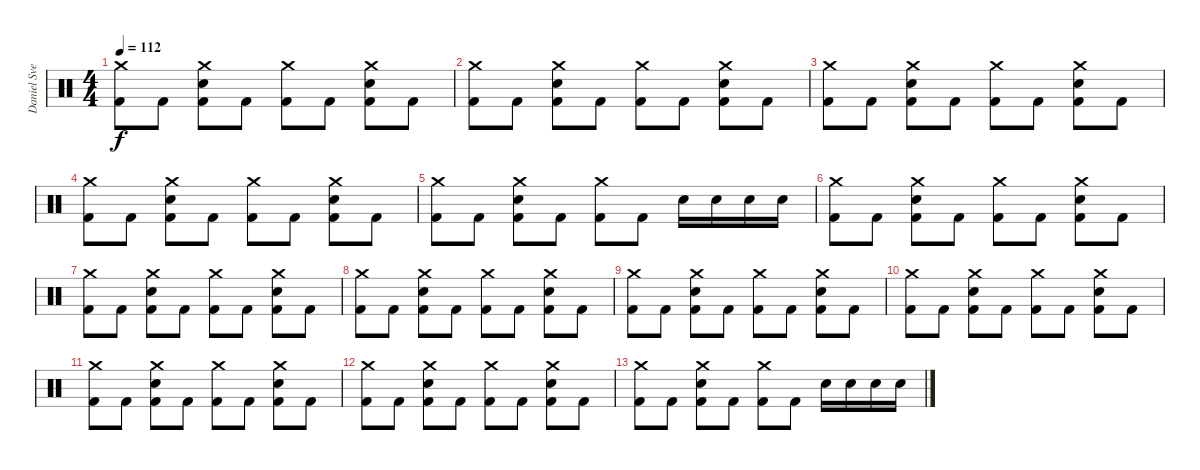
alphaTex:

\track ("Daniel Svensson" "Daniel Sve") {instrument percussion}
\staff {score}
\articulation defaults
\ts (4 4)
\tempo 112
\clef neutral
\ks c
("Crash medium (hit)" "Kick (hit) 2").8{dy f} "Kick (hit) 2".8 ("Crash medium (hit)" "Snare (hit) 2" "Kick (hit) 2").8 "Kick (hit) 2".8 ("Crash medium (hit)" "Kick (hit) 2").8 "Kick (hit) 2".8 ("Crash medium (hit)" "Snare (hit) 2" "Kick (hit) 2").8 "Kick (hit) 2".8 |
("Crash medium (hit)" "Kick (hit) 2").8 "Kick (hit) 2".8 ("Crash medium (hit)" "Snare (hit) 2" "Kick (hit) 2").8 "Kick (hit) 2".8 ("Crash medium (hit)" "Kick (hit) 2").8 "Kick (hit) 2".8 ("Crash medium (hit)" "Snare (hit) 2" "Kick (hit) 2").8 "Kick (hit) 2".8 |
("Crash medium (hit)" "Kick (hit) 2").8 "Kick (hit) 2".8 ("Crash medium (hit)" "Snare (hit) 2" "Kick (hit) 2").8 "Kick (hit) 2".8 ("Crash medium (hit)" "Kick (hit) 2").8 "Kick (hit) 2".8 ("Crash medium (hit)" "Snare (hit) 2" "Kick (hit) 2").8 "Kick (hit) 2".8 |
("Crash medium (hit)" "Kick (hit) 2").8 "Kick (hit) 2".8 ("Crash medium (hit)" "Snare (hit) 2" "Kick (hit) 2").8 "Kick (hit) 2".8 ("Crash medium (hit)" "Kick (hit) 2").8 "Kick (hit) 2".8 ("Crash medium (hit)" "Snare (hit) 2" "Kick (hit) 2").8 "Kick (hit) 2".8 |
("Crash medium (hit)" "Kick (hit) 2").8 "Kick (hit) 2".8 ("Crash medium (hit)" "Snare (hit) 2" "Kick (hit) 2").8 "Kick (hit) 2".8 ("Crash medium (hit)" "Kick (hit) 2").8 "Kick (hit) 2".8 "Snare (hit) 2".16 "Snare (hit) 2".16 "Snare (hit) 2".16 "Snare (hit) 2".16 |
("Crash medium (hit)" "Kick (hit) 2").8 "Kick (hit) 2".8 ("Crash medium (hit)" "Snare (hit) 2" "Kick (hit) 2").8 "Kick (hit) 2".8 ("Crash medium (hit)" "Kick (hit) 2").8 "Kick (hit) 2".8 ("Crash medium (hit)" "Snare (hit) 2" "Kick (hit) 2").8 "Kick (hit) 2".8 |
("Crash medium (hit)" "Kick (hit) 2").8 "Kick (hit) 2".8 ("Crash medium (hit)" "Snare (hit) 2" "Kick (hit) 2").8 "Kick (hit) 2".8 ("Crash medium (hit)" "Kick (hit) 2").8 "Kick (hit) 2".8 ("Crash medium (hit)" "Snare (hit) 2" "Kick (hit) 2").8 "Kick (hit) 2".8 |
("Crash medium (hit)" "Kick (hit) 2").8 "Kick (hit) 2".8 ("Crash medium (hit)" "Snare (hit) 2" "Kick (hit) 2").8 "Kick (hit) 2".8 ("Crash medium (hit)" "Kick (hit) 2").8 "Kick (hit) 2".8 ("Crash medium (hit)" "Snare (hit) 2" "Kick (hit) 2").8 "Kick (hit) 2".8 |
("Crash medium (hit)" "Kick (hit) 2").8 "Kick (hit) 2".8 ("Crash medium (hit)" "Snare (hit) 2" "Kick (hit) 2").8 "Kick (hit) 2".8 ("Crash medium (hit)" "Kick (hit) 2").8 "Kick (hit) 2".8 ("Crash medium (hit)" "Snare (hit) 2" "Kick (hit) 2").8 "Kick (hit) 2".8 |
("Crash medium (hit)" "Kick (hit) 2").8 "Kick (hit) 2".8 ("Crash medium (hit)" "Snare (hit) 2" "Kick (hit) 2").8 "Kick (hit) 2".8 ("Crash medium (hit)" "Kick (hit) 2").8 "Kick (hit) 2".8 ("Crash medium (hit)" "Snare (hit) 2" "Kick (hit) 2").8 "Kick (hit) 2".8 |
("Crash medium (hit)" "Kick (hit) 2").8 "Kick (hit) 2".8 ("Crash medium (hit)" "Snare (hit) 2" "Kick (hit) 2").8 "Kick (hit) 2".8 ("Crash medium (hit)" "Kick (hit) 2").8 "Kick (hit) 2".8 ("Crash medium (hit)" "Snare (hit) 2" "Kick (hit) 2").8 "Kick (hit) 2".8 |
("Crash medium (hit)" "Kick (hit) 2").8 "Kick (hit) 2".8 ("Crash medium (hit)" "Snare (hit) 2" "Kick (hit) 2").8 "Kick (hit) 2".8 ("Crash medium (hit)" "Kick (hit) 2").8 "Kick (hit) 2".8 ("Crash medium (hit)" "Snare (hit) 2" "Kick (hit) 2").8 "Kick (hit) 2".8 |
("Crash medium (hit)" "Kick (hit) 2").8 "Kick (hit) 2".8 ("Crash medium (hit)" "Snare (hit) 2" "Kick (hit) 2").8 "Kick (hit) 2".8 ("Crash medium (hit)" "Kick (hit) 2").8 "Kick (hit) 2".8 "Snare (hit) 2".16 "Snare (hit) 2".16 "Snare (hit) 2".16 "Snare (hit) 2".16
